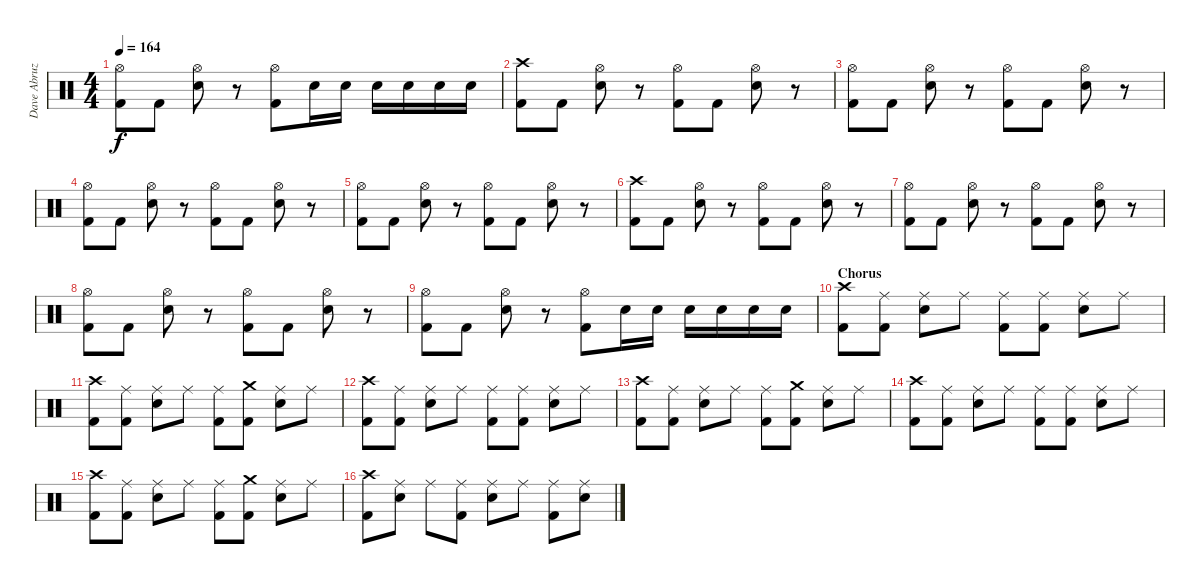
\track ("Dave Abruzzese" "Dave Abruz") {instrument percussion}
\staff {score}
\articulation defaults
\ts (4 4)
\tempo 164
\clef neutral
\ks c
("Kick (hit) 2" "Hi-Hat (open)").8{dy f} "Kick (hit) 2".8 ("Electric Snare (hit)" "Hi-Hat (open)").8 r.8 ("Kick (hit) 2" "Hi-Hat (open)").8 "Electric Snare (hit)".16 "Electric Snare (hit)".16 "Electric Snare (hit)".16 "Electric Snare (hit)".16 "Electric Snare (hit)".16 "Electric Snare (hit)".16 |
("Kick (hit) 2" "Crash high (hit)").8 "Kick (hit) 2".8 ("Electric Snare (hit)" "Hi-Hat (open)").8 r.8 ("Kick (hit) 2" "Hi-Hat (open)").8 "Kick (hit) 2".8 ("Electric Snare (hit)" "Hi-Hat (open)").8 r.8 |
("Kick (hit) 2" "Hi-Hat (open)").8 "Kick (hit) 2".8 ("Electric Snare (hit)" "Hi-Hat (open)").8 r.8 ("Kick (hit) 2" "Hi-Hat (open)").8 "Kick (hit) 2".8 ("Electric Snare (hit)" "Hi-Hat (open)").8 r.8 |
("Kick (hit) 2" "Hi-Hat (open)").8 "Kick (hit) 2".8 ("Electric Snare (hit)" "Hi-Hat (open)").8 r.8 ("Kick (hit) 2" "Hi-Hat (open)").8 "Kick (hit) 2".8 ("Electric Snare (hit)" "Hi-Hat (open)").8 r.8 |
("Kick (hit) 2" "Hi-Hat (open)").8 "Kick (hit) 2".8 ("Electric Snare (hit)" "Hi-Hat (open)").8 r.8 ("Kick (hit) 2" "Hi-Hat (open)").8 "Kick (hit) 2".8 ("Electric Snare (hit)" "Hi-Hat (open)").8 r.8 |
("Kick (hit) 2" "Crash high (hit)").8 "Kick (hit) 2".8 ("Electric Snare (hit)" "Hi-Hat (open)").8 r.8 ("Kick (hit) 2" "Hi-Hat (open)").8 "Kick (hit) 2".8 ("Electric Snare (hit)" "Hi-Hat (open)").8 r.8 |
("Kick (hit) 2" "Hi-Hat (open)").8 "Kick (hit) 2".8 ("Electric Snare (hit)" "Hi-Hat (open)").8 r.8 ("Kick (hit) 2" "Hi-Hat (open)").8 "Kick (hit) 2".8 ("Electric Snare (hit)" "Hi-Hat (open)").8 r.8 |
("Kick (hit) 2" "Hi-Hat (open)").8 "Kick (hit) 2".8 ("Electric Snare (hit)" "Hi-Hat (open)").8 r.8 ("Kick (hit) 2" "Hi-Hat (open)").8 "Kick (hit) 2".8 ("Electric Snare (hit)" "Hi-Hat (open)").8 r.8 |
("Kick (hit) 2" "Hi-Hat (open)").8 "Kick (hit) 2".8 ("Electric Snare (hit)" "Hi-Hat (open)").8 r.8 ("Kick (hit) 2" "Hi-Hat (open)").8 "Electric Snare (hit)".16 "Electric Snare (hit)".16 "Electric Snare (hit)".16 "Electric Snare (hit)".16 "Electric Snare (hit)".16 "Electric Snare (hit)".16 |
\section ("" "Chorus")
("Kick (hit) 2" "Crash high (hit)").8 ("Kick (hit) 2" "Ride (middle)").8 ("Electric Snare (hit)" "Ride (middle)").8 "Ride (middle)".8 ("Kick (hit) 2" "Ride (middle)").8 ("Kick (hit) 2" "Ride (middle)").8 ("Electric Snare (hit)" "Ride (middle)").8 "Ride (middle)".8 |
("Kick (hit) 2" "Crash high (hit)").8 ("Kick (hit) 2" "Ride (middle)").8 ("Electric Snare (hit)" "Ride (middle)").8 "Ride (middle)".8 ("Kick (hit) 2" "Ride (middle)").8 ("Kick (hit) 2" "Crash medium (hit)").8 ("Electric Snare (hit)" "Ride (middle)").8 "Ride (middle)".8 |
("Kick (hit) 2" "Crash high (hit)").8 ("Kick (hit) 2" "Ride (middle)").8 ("Electric Snare (hit)" "Ride (middle)").8 "Ride (middle)".8 ("Kick (hit) 2" "Ride (middle)").8 ("Kick (hit) 2" "Ride (middle)").8 ("Electric Snare (hit)" "Ride (middle)").8 "Ride (middle)".8 |
("Kick (hit) 2" "Crash high (hit)").8 ("Kick (hit) 2" "Ride (middle)").8 ("Electric Snare (hit)" "Ride (middle)").8 "Ride (middle)".8 ("Kick (hit) 2" "Ride (middle)").8 ("Kick (hit) 2" "Crash medium (hit)").8 ("Electric Snare (hit)" "Ride (middle)").8 "Ride (middle)".8 |
("Kick (hit) 2" "Crash high (hit)").8 ("Kick (hit) 2" "Ride (middle)").8 ("Electric Snare (hit)" "Ride (middle)").8 "Ride (middle)".8 ("Kick (hit) 2" "Ride (middle)").8 ("Kick (hit) 2" "Ride (middle)").8 ("Electric Snare (hit)" "Ride (middle)").8 "Ride (middle)".8 |
("Kick (hit) 2" "Crash high (hit)").8 ("Kick (hit) 2" "Ride (middle)").8 ("Electric Snare (hit)" "Ride (middle)").8 "Ride (middle)".8 ("Kick (hit) 2" "Ride (middle)").8 ("Kick (hit) 2" "Crash medium (hit)").8 ("Electric Snare (hit)" "Ride (middle)").8 "Ride (middle)".8 |
("Kick (hit) 2" "Crash high (hit)").8 ("Electric Snare (hit)" "Ride (middle)").8 "Ride (middle)".8 ("Kick (hit) 2" "Ride (middle)").8 ("Electric Snare (hit)" "Ride (middle)").8 "Ride (middle)".8 ("Kick (hit) 2" "Ride (middle)").8 ("Electric Snare (hit)" "Ride (middle)").8
